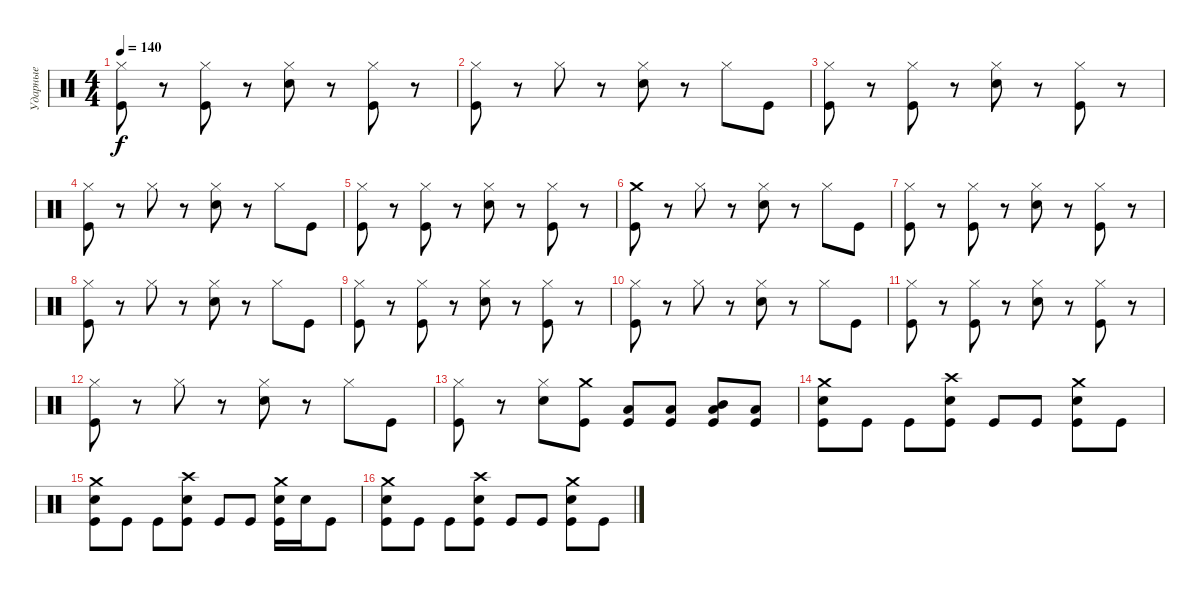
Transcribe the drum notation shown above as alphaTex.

\track ("Ударные" "Ударные") {instrument percussion}
\staff {score}
\articulation defaults
\ts (4 4)
\tempo 140
\clef neutral
\ks c
("Kick (hit)" "Hi-Hat (closed)").8{dy f} r.8 ("Kick (hit)" "Hi-Hat (closed)").8 r.8 ("Snare (hit) 2" "Hi-Hat (closed)").8 r.8 ("Kick (hit)" "Hi-Hat (closed)").8 r.8 |
("Kick (hit)" "Hi-Hat (closed)").8 r.8 "Hi-Hat (closed)".8 r.8 ("Snare (hit) 2" "Hi-Hat (closed)").8 r.8 "Hi-Hat (closed)".8 "Kick (hit)".8 |
("Kick (hit)" "Hi-Hat (closed)").8 r.8 ("Kick (hit)" "Hi-Hat (closed)").8 r.8 ("Snare (hit) 2" "Hi-Hat (closed)").8 r.8 ("Kick (hit)" "Hi-Hat (closed)").8 r.8 |
("Kick (hit)" "Hi-Hat (closed)").8 r.8 "Hi-Hat (closed)".8 r.8 ("Snare (hit) 2" "Hi-Hat (closed)").8 r.8 "Hi-Hat (closed)".8 "Kick (hit)".8 |
("Kick (hit)" "Hi-Hat (closed)").8 r.8 ("Kick (hit)" "Hi-Hat (closed)").8 r.8 ("Snare (hit) 2" "Hi-Hat (closed)").8 r.8 ("Kick (hit)" "Hi-Hat (closed)").8 r.8 |
("Kick (hit)" "Crash medium (hit)").8 r.8 "Hi-Hat (closed)".8 r.8 ("Snare (hit) 2" "Hi-Hat (closed)").8 r.8 "Hi-Hat (closed)".8 "Kick (hit)".8 |
("Kick (hit)" "Hi-Hat (closed)").8 r.8 ("Kick (hit)" "Hi-Hat (closed)").8 r.8 ("Snare (hit) 2" "Hi-Hat (closed)").8 r.8 ("Kick (hit)" "Hi-Hat (closed)").8 r.8 |
("Kick (hit)" "Hi-Hat (closed)").8 r.8 "Hi-Hat (closed)".8 r.8 ("Snare (hit) 2" "Hi-Hat (closed)").8 r.8 "Hi-Hat (closed)".8 "Kick (hit)".8 |
("Kick (hit)" "Hi-Hat (closed)").8 r.8 ("Kick (hit)" "Hi-Hat (closed)").8 r.8 ("Snare (hit) 2" "Hi-Hat (closed)").8 r.8 ("Kick (hit)" "Hi-Hat (closed)").8 r.8 |
("Kick (hit)" "Hi-Hat (closed)").8 r.8 "Hi-Hat (closed)".8 r.8 ("Snare (hit) 2" "Hi-Hat (closed)").8 r.8 "Hi-Hat (closed)".8 "Kick (hit)".8 |
("Kick (hit)" "Hi-Hat (closed)").8 r.8 ("Kick (hit)" "Hi-Hat (closed)").8 r.8 ("Snare (hit) 2" "Hi-Hat (closed)").8 r.8 ("Kick (hit)" "Hi-Hat (closed)").8 r.8 |
("Kick (hit)" "Hi-Hat (closed)").8 r.8 "Hi-Hat (closed)".8 r.8 ("Snare (hit) 2" "Hi-Hat (closed)").8 r.8 "Hi-Hat (closed)".8 "Kick (hit)".8 |
("Kick (hit)" "Hi-Hat (closed)").8 r.8 ("Snare (hit) 2" "Hi-Hat (closed)").8 ("Crash medium (hit)" "Kick (hit)").8 ("Low Tom (hit)" "Kick (hit)").8 ("Low Tom (hit)" "Kick (hit)").8 ("Mid Tom (hit)" "Low Tom (hit)" "Kick (hit)").8 ("Low Tom (hit)" "Kick (hit)").8 |
("Crash medium (hit)" "Snare (hit) 2" "Kick (hit)").8 "Kick (hit)".8 "Kick (hit)".8 ("Crash high (hit)" "Snare (hit) 2" "Kick (hit)").8 "Kick (hit)".8 "Kick (hit)".8 ("Crash medium (hit)" "Snare (hit) 2" "Kick (hit)").8 "Kick (hit)".8 |
("Crash medium (hit)" "Snare (hit) 2" "Kick (hit)").8 "Kick (hit)".8 "Kick (hit)".8 ("Crash high (hit)" "Snare (hit) 2" "Kick (hit)").8 "Kick (hit)".8 "Kick (hit)".8 ("Crash medium (hit)" "Snare (hit) 2" "Kick (hit)").16 "Snare (hit) 2".16 "Kick (hit)".8 |
("Crash medium (hit)" "Snare (hit) 2" "Kick (hit)").8 "Kick (hit)".8 "Kick (hit)".8 ("Crash high (hit)" "Snare (hit) 2" "Kick (hit)").8 "Kick (hit)".8 "Kick (hit)".8 ("Crash medium (hit)" "Snare (hit) 2" "Kick (hit)").8 "Kick (hit)".8
